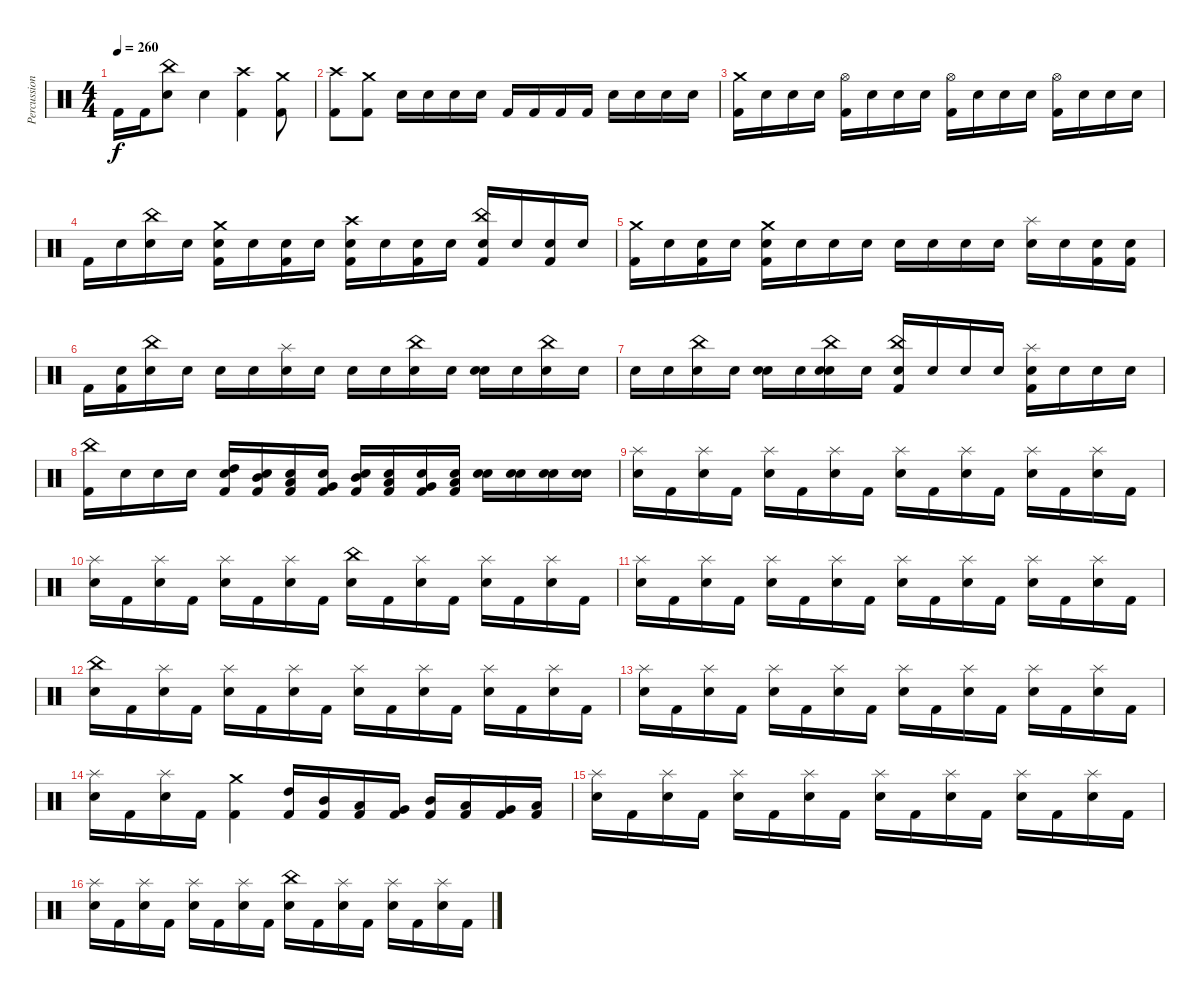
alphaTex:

\track ("Percussion" "Percussion") {instrument percussion}
\staff {score}
\articulation defaults
\ts (4 4)
\tempo 260
\clef neutral
\ks c "Kick (hit) 2".16{dy f} "Kick (hit) 2".16
("China (hit)" "Snare (hit) 2").8 "Snare (hit)".4 ("Crash high (hit)" "Kick (hit) 2").4 ("Crash medium (hit)" "Kick (hit) 2").8 |
("Crash high (hit)" "Kick (hit) 2").8 ("Crash medium (hit)" "Kick (hit) 2").8 "Snare (hit) 2".16 "Snare (hit) 2".16 "Snare (hit) 2".16 "Snare (hit) 2".16 "Kick (hit) 2".16 "Kick (hit) 2".16 "Kick (hit) 2".16 "Kick (hit) 2".16 "Snare (hit) 2".16 "Snare (hit) 2".16 "Snare (hit) 2".16 "Snare (hit) 2".16 |
("Crash medium (hit)" "Kick (hit) 2").16 "Snare (hit)".16 "Snare (hit) 2".16 "Snare (hit)".16 ("Hi-Hat (open)" "Kick (hit) 2").16 "Snare (hit)".16 "Snare (hit) 2".16 "Snare (hit)".16 ("Hi-Hat (open)" "Kick (hit) 2").16 "Snare (hit)".16 "Snare (hit) 2".16 "Snare (hit)".16 ("Hi-Hat (open)" "Kick (hit) 2").16 "Snare (hit)".16 "Snare (hit) 2".16 "Snare (hit)".16 |
"Kick (hit) 2".16 "Snare (hit)".16 ("China (hit)" "Snare (hit) 2").16 "Snare (hit)".16 ("Crash medium (hit)" "Kick (hit) 2" "Snare (hit)").16 "Snare (hit)".16 ("Kick (hit) 2" "Snare (hit)").16 "Snare (hit)".16 ("Crash high (hit)" "Kick (hit) 2" "Snare (hit)").16 "Snare (hit)".16 ("Kick (hit) 2" "Snare (hit)").16 "Snare (hit)".16 ("China (hit)" "Kick (hit) 2" "Snare (hit)").16 "Snare (hit)".16 ("Kick (hit) 2" "Snare (hit)").16 "Snare (hit)".16 |
("Crash medium (hit)" "Kick (hit) 2").16 "Snare (hit)".16 ("Kick (hit) 2" "Snare (hit)").16 "Snare (hit)".16 ("Kick (hit) 2" "Crash medium (hit)" "Snare (hit)").16 "Snare (hit)".16 "Snare (hit)".16 "Snare (hit)".16 "Snare (hit)".16 "Snare (hit)".16 "Snare (hit)".16 "Snare (hit)".16 ("Splash (hit)" "Snare (hit)").16 "Snare (hit)".16 ("Kick (hit) 2" "Snare (hit)").16 ("Kick (hit) 2" "Snare (hit)").16 |
"Kick (hit) 2".16 ("Kick (hit) 2" "Snare (hit)").16 ("China (hit)" "Snare (hit)").16 "Snare (hit)".16 "Snare (hit)".16 "Snare (hit)".16 ("Splash (hit)" "Snare (hit)").16 "Snare (hit)".16 "Snare (hit)".16 "Snare (hit)".16 ("China (hit)" "Snare (hit)").16 "Snare (hit)".16 ("Snare (hit) 2" "Snare (hit)").16 "Snare (hit)".16 ("China (hit)" "Snare (hit)").16 "Snare (hit)".16 |
"Snare (hit) 2".16 "Snare (hit)".16 ("China (hit)" "Snare (hit)").16 "Snare (hit)".16 ("Snare (hit) 2" "Snare (hit)").16 "Snare (hit)".16 ("Snare (hit) 2" "China (hit)" "Snare (hit)").16 "Snare (hit)".16 ("China (hit)" "Kick (hit) 2" "Snare (hit)").16 "Snare (hit)".16 "Snare (hit)".16 "Snare (hit)".16 ("Splash (hit)" "Kick (hit) 2" "Snare (hit)").16 "Snare (hit)".16 "Snare (hit)".16 "Snare (hit)".16 |
("China (hit)" "Kick (hit) 2").16 "Snare (hit)".16 "Snare (hit)".16 "Snare (hit)".16 ("High Tom (hit)" "Kick (hit) 2" "Snare (hit)").16 ("Mid Tom (hit)" "Kick (hit) 2" "Snare (hit)").16 ("Low Tom (hit)" "Kick (hit) 2" "Snare (hit)").16 ("Very Low Tom (hit)" "Kick (hit) 2" "Snare (hit)").16 ("Mid Tom (hit)" "Kick (hit) 2" "Snare (hit)").16 ("Low Tom (hit)" "Kick (hit) 2" "Snare (hit)").16 ("Very Low Tom (hit)" "Kick (hit) 2" "Snare (hit)").16 ("Low Floor Tom (hit)" "Kick (hit) 2" "Snare (hit)").16 ("Snare (hit) 2" "Snare (hit)").16 ("Snare (hit) 2" "Snare (hit)").16 ("Snare (hit) 2" "Snare (hit)").16 ("Snare (hit) 2" "Snare (hit)").16 |
("Splash (hit)" "Snare (hit) 2").16 "Kick (hit) 2".16 ("Splash (hit)" "Snare (hit) 2").16 "Kick (hit) 2".16 ("Splash (hit)" "Snare (hit) 2").16 "Kick (hit) 2".16 ("Splash (hit)" "Snare (hit) 2").16 "Kick (hit) 2".16 ("Splash (hit)" "Snare (hit) 2").16 "Kick (hit) 2".16 ("Splash (hit)" "Snare (hit) 2").16 "Kick (hit) 2".16 ("Splash (hit)" "Snare (hit) 2").16 "Kick (hit) 2".16 ("Splash (hit)" "Snare (hit) 2").16 "Kick (hit) 2".16 |
("Splash (hit)" "Snare (hit) 2").16 "Kick (hit) 2".16 ("Splash (hit)" "Snare (hit) 2").16 "Kick (hit) 2".16 ("Splash (hit)" "Snare (hit) 2").16 "Kick (hit) 2".16 ("Splash (hit)" "Snare (hit) 2").16 "Kick (hit) 2".16 ("China (hit)" "Snare (hit) 2").16 "Kick (hit) 2".16 ("Splash (hit)" "Snare (hit) 2").16 "Kick (hit) 2".16 ("Splash (hit)" "Snare (hit) 2").16 "Kick (hit) 2".16 ("Splash (hit)" "Snare (hit) 2").16 "Kick (hit) 2".16 |
("Splash (hit)" "Snare (hit) 2").16 "Kick (hit) 2".16 ("Splash (hit)" "Snare (hit) 2").16 "Kick (hit) 2".16 ("Splash (hit)" "Snare (hit) 2").16 "Kick (hit) 2".16 ("Splash (hit)" "Snare (hit) 2").16 "Kick (hit) 2".16 ("Splash (hit)" "Snare (hit) 2").16 "Kick (hit) 2".16 ("Splash (hit)" "Snare (hit) 2").16 "Kick (hit) 2".16 ("Splash (hit)" "Snare (hit) 2").16 "Kick (hit) 2".16 ("Splash (hit)" "Snare (hit) 2").16 "Kick (hit) 2".16 |
("China (hit)" "Snare (hit) 2").16 "Kick (hit) 2".16 ("Splash (hit)" "Snare (hit) 2").16 "Kick (hit) 2".16 ("Splash (hit)" "Snare (hit) 2").16 "Kick (hit) 2".16 ("Splash (hit)" "Snare (hit) 2").16 "Kick (hit) 2".16 ("Splash (hit)" "Snare (hit) 2").16 "Kick (hit) 2".16 ("Splash (hit)" "Snare (hit) 2").16 "Kick (hit) 2".16 ("Splash (hit)" "Snare (hit) 2").16 "Kick (hit) 2".16 ("Splash (hit)" "Snare (hit) 2").16 "Kick (hit) 2".16 |
("Splash (hit)" "Snare (hit) 2").16 "Kick (hit) 2".16 ("Splash (hit)" "Snare (hit) 2").16 "Kick (hit) 2".16 ("Splash (hit)" "Snare (hit) 2").16 "Kick (hit) 2".16 ("Splash (hit)" "Snare (hit) 2").16 "Kick (hit) 2".16 ("Splash (hit)" "Snare (hit) 2").16 "Kick (hit) 2".16 ("Splash (hit)" "Snare (hit) 2").16 "Kick (hit) 2".16 ("Splash (hit)" "Snare (hit) 2").16 "Kick (hit) 2".16 ("Splash (hit)" "Snare (hit) 2").16 "Kick (hit) 2".16 |
("Splash (hit)" "Snare (hit) 2").16 "Kick (hit) 2".16 ("Splash (hit)" "Snare (hit) 2").16 "Kick (hit) 2".16 ("Crash medium (hit)" "Kick (hit) 2").4 ("High Tom (hit)" "Kick (hit) 2").16 ("Mid Tom (hit)" "Kick (hit) 2").16 ("Low Tom (hit)" "Kick (hit) 2").16 ("Very Low Tom (hit)" "Kick (hit) 2").16 ("Mid Tom (hit)" "Kick (hit) 2").16 ("Low Tom (hit)" "Kick (hit) 2").16 ("Very Low Tom (hit)" "Kick (hit) 2").16 ("Low Floor Tom (hit)" "Kick (hit) 2").16 |
("Splash (hit)" "Snare (hit) 2").16 "Kick (hit) 2".16 ("Splash (hit)" "Snare (hit) 2").16 "Kick (hit) 2".16 ("Splash (hit)" "Snare (hit) 2").16 "Kick (hit) 2".16 ("Splash (hit)" "Snare (hit) 2").16 "Kick (hit) 2".16 ("Splash (hit)" "Snare (hit) 2").16 "Kick (hit) 2".16 ("Splash (hit)" "Snare (hit) 2").16 "Kick (hit) 2".16 ("Splash (hit)" "Snare (hit) 2").16 "Kick (hit) 2".16 ("Splash (hit)" "Snare (hit) 2").16 "Kick (hit) 2".16 |
("Splash (hit)" "Snare (hit) 2").16 "Kick (hit) 2".16 ("Splash (hit)" "Snare (hit) 2").16 "Kick (hit) 2".16 ("Splash (hit)" "Snare (hit) 2").16 "Kick (hit) 2".16 ("Splash (hit)" "Snare (hit) 2").16 "Kick (hit) 2".16 ("China (hit)" "Snare (hit) 2").16 "Kick (hit) 2".16 ("Splash (hit)" "Snare (hit) 2").16 "Kick (hit) 2".16 ("Splash (hit)" "Snare (hit) 2").16 "Kick (hit) 2".16 ("Splash (hit)" "Snare (hit) 2").16 "Kick (hit) 2".16
